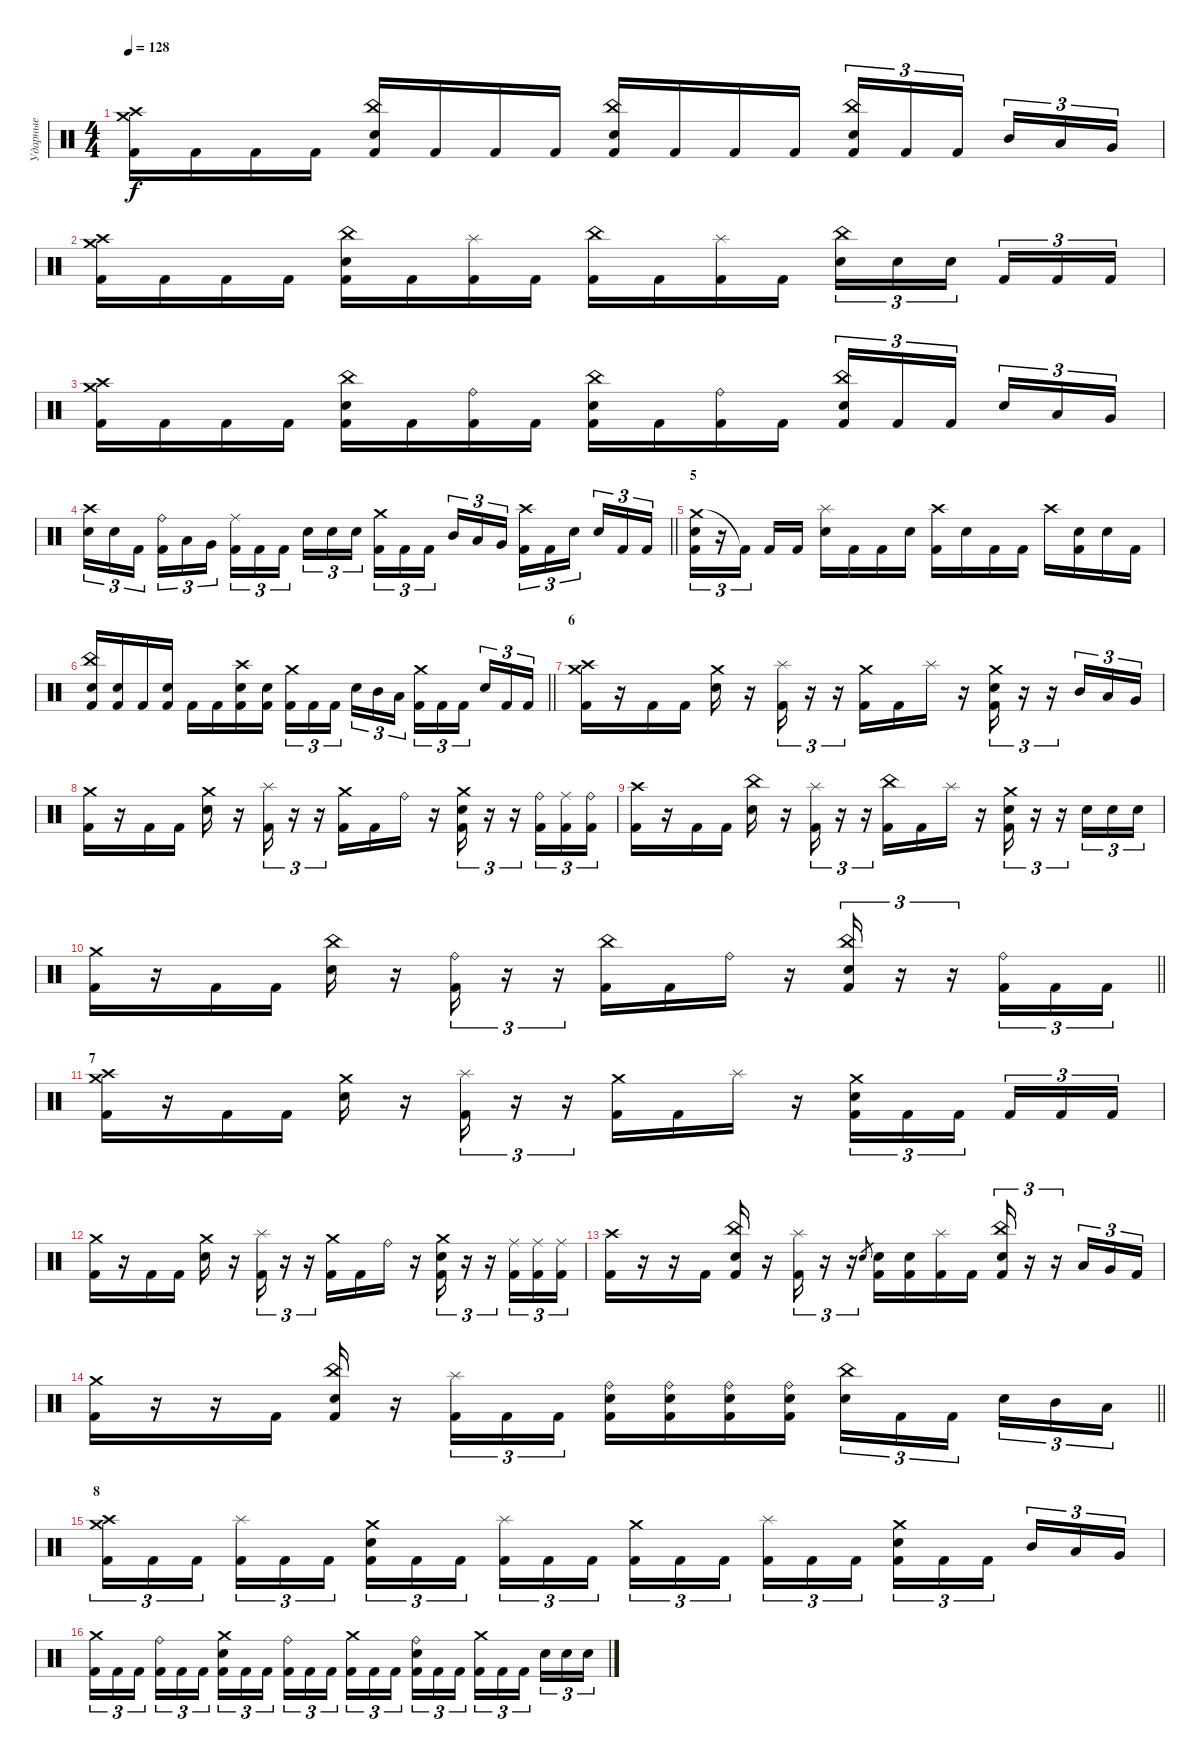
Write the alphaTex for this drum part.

\track ("Ударные" "Ударные") {instrument percussion}
\staff {score}
\articulation defaults
\ts (4 4)
\tempo 128
\clef neutral
\ks c
("Crash high (hit)" "Crash medium (hit)" "Kick (hit) 2").16{dy f} "Kick (hit) 2".16 "Kick (hit) 2".16 "Kick (hit) 2".16 ("China (hit)" "Electric Snare (hit)" "Kick (hit) 2").16 "Kick (hit) 2".16 "Kick (hit) 2".16 "Kick (hit) 2".16 ("China (hit)" "Electric Snare (hit)" "Kick (hit) 2").16 "Kick (hit) 2".16 "Kick (hit) 2".16 "Kick (hit) 2".16 ("China (hit)" "Electric Snare (hit)" "Kick (hit) 2").16{tu (3 2)} "Kick (hit) 2".16{tu (3 2)} "Kick (hit) 2".16{tu (3 2) beam splitsecondary} "Mid Tom (hit)".16{tu (3 2)} "Low Tom (hit)".16{tu (3 2)} "Very Low Tom (hit)".16{tu (3 2)} |
("Crash high (hit)" "Crash medium (hit)" "Kick (hit) 2").16 "Kick (hit) 2".16 "Kick (hit) 2".16 "Kick (hit) 2".16 ("China (hit)" "Electric Snare (hit)" "Kick (hit) 2").16 "Kick (hit) 2".16 ("Splash (hit)" "Kick (hit) 2").16 "Kick (hit) 2".16 ("China (hit)" "Kick (hit) 2").16 "Kick (hit) 2".16 ("Splash (hit)" "Kick (hit) 2").16 "Kick (hit) 2".16 ("China (hit)" "Electric Snare (hit)").16{tu (3 2)} "Electric Snare (hit)".16{tu (3 2)} "Electric Snare (hit)".16{tu (3 2) beam splitsecondary} "Kick (hit) 2".16{tu (3 2)} "Kick (hit) 2".16{tu (3 2)} "Kick (hit) 2".16{tu (3 2)} |
("Crash high (hit)" "Crash medium (hit)" "Kick (hit) 2").16 "Kick (hit) 2".16 "Kick (hit) 2".16 "Kick (hit) 2".16 ("China (hit)" "Electric Snare (hit)" "Kick (hit) 2").16 "Kick (hit) 2".16 ("Ride (bell)" "Kick (hit) 2").16 "Kick (hit) 2".16 ("China (hit)" "Electric Snare (hit)" "Kick (hit) 2").16 "Kick (hit) 2".16 ("Ride (bell)" "Kick (hit) 2").16 "Kick (hit) 2".16 ("China (hit)" "Electric Snare (hit)" "Kick (hit) 2").16{tu (3 2)} "Kick (hit) 2".16{tu (3 2)} "Kick (hit) 2".16{tu (3 2) beam splitsecondary} "Electric Snare (hit)".16{tu (3 2)} "Low Tom (hit)".16{tu (3 2)} "Very Low Tom (hit)".16{tu (3 2)} |
\barLineRight lightlight
("Crash high (hit)" "Electric Snare (hit)").16{tu (3 2)} "Electric Snare (hit)".16{tu (3 2)} "Kick (hit) 2".16{tu (3 2) beam splitsecondary} ("Ride (bell)" "Kick (hit) 2").16{tu (3 2)} "Low Tom (hit)".16{tu (3 2)} "Very Low Tom (hit)".16{tu (3 2)} ("Ride (middle)" "Kick (hit) 2").16{tu (3 2)} "Kick (hit) 2".16{tu (3 2)} "Kick (hit) 2".16{tu (3 2) beam splitsecondary} "Electric Snare (hit)".16{tu (3 2)} "Electric Snare (hit)".16{tu (3 2)} "Electric Snare (hit)".16{tu (3 2)} ("Crash medium (hit)" "Kick (hit) 2").16{tu (3 2)} "Kick (hit) 2".16{tu (3 2)} "Kick (hit) 2".16{tu (3 2) beam splitsecondary} "Mid Tom (hit)".16{tu (3 2)} "Low Tom (hit)".16{tu (3 2)} "Very Low Tom (hit)".16{tu (3 2)} ("Crash high (hit)" "Kick (hit) 2").16{tu (3 2)} "Kick (hit) 2".16{tu (3 2)} "Electric Snare (hit)".16{tu (3 2) beam splitsecondary} "Electric Snare (hit)".16{tu (3 2)} "Kick (hit) 2".16{tu (3 2)} "Kick (hit) 2".16{tu (3 2)} |
\section ("" "5")
("Crash medium (hit)" "Electric Snare (hit)" "Kick (hit) 2").16{tu (3 2)} r.16{tu (3 2)} "Kick (hit) 2"{t}.16{tu (3 2) beam splitsecondary} "Kick (hit) 2".16 "Kick (hit) 2".16 ("Splash (hit)" "Electric Snare (hit)").16 "Kick (hit) 2".16 "Kick (hit) 2".16 "Electric Snare (hit)".16 ("Crash high (hit)" "Kick (hit) 2").16 "Electric Snare (hit)".16 "Kick (hit) 2".16 "Kick (hit) 2".16 "Crash high (hit)".16 ("Electric Snare (hit)" "Kick (hit) 2").16 "Electric Snare (hit)".16 "Kick (hit) 2".16 |
\barLineRight lightlight
("China (hit)" "Electric Snare (hit)" "Kick (hit) 2").16 ("Electric Snare (hit)" "Kick (hit) 2").16 "Kick (hit) 2".16 ("Electric Snare (hit)" "Kick (hit) 2").16 "Kick (hit) 2".16 "Kick (hit) 2".16 ("Crash high (hit)" "Electric Snare (hit)" "Kick (hit) 2").16 ("Electric Snare (hit)" "Kick (hit) 2").16 ("Crash medium (hit)" "Kick (hit) 2").16{tu (3 2)} "Kick (hit) 2".16{tu (3 2)} "Kick (hit) 2".16{tu (3 2) beam splitsecondary} "Electric Snare (hit)".16{tu (3 2)} "Mid Tom (hit)".16{tu (3 2)} "Low Tom (hit)".16{tu (3 2)} ("Crash medium (hit)" "Kick (hit) 2").16{tu (3 2)} "Kick (hit) 2".16{tu (3 2)} "Kick (hit) 2".16{tu (3 2) beam splitsecondary} "Electric Snare (hit)".16{tu (3 2)} "Kick (hit) 2".16{tu (3 2)} "Kick (hit) 2".16{tu (3 2)} |
\section ("" "6")
("Crash high (hit)" "Crash medium (hit)" "Kick (hit) 2").16 r.16 "Kick (hit) 2".16 "Kick (hit) 2".16 ("Crash medium (hit)" "Electric Snare (hit)").16 r.16 ("Splash (hit)" "Kick (hit) 2").16{tu (3 2)} r.16{tu (3 2)} r.16{tu (3 2)} ("Crash medium (hit)" "Kick (hit) 2").16 "Kick (hit) 2".16 "Splash (hit)".16 r.16 ("Crash medium (hit)" "Electric Snare (hit)" "Kick (hit) 2").16{tu (3 2)} r.16{tu (3 2)} r.16{tu (3 2)} "Mid Tom (hit)".16{tu (3 2)} "Low Tom (hit)".16{tu (3 2)} "Very Low Tom (hit)".16{tu (3 2)} |
("Crash medium (hit)" "Kick (hit) 2").16 r.16 "Kick (hit) 2".16 "Kick (hit) 2".16 ("Crash medium (hit)" "Electric Snare (hit)").16 r.16 ("Splash (hit)" "Kick (hit) 2").16{tu (3 2)} r.16{tu (3 2)} r.16{tu (3 2)} ("Crash medium (hit)" "Kick (hit) 2").16 "Kick (hit) 2".16 "Ride (bell)".16 r.16 ("Crash medium (hit)" "Electric Snare (hit)" "Kick (hit) 2").16{tu (3 2)} r.16{tu (3 2)} r.16{tu (3 2)} ("Ride (bell)" "Kick (hit) 2").16{tu (3 2)} ("Ride (middle)" "Kick (hit) 2").16{tu (3 2)} ("Ride (bell)" "Kick (hit) 2").16{tu (3 2)} |
("Crash high (hit)" "Kick (hit) 2").16 r.16 "Kick (hit) 2".16 "Kick (hit) 2".16 ("China (hit)" "Electric Snare (hit)").16 r.16 ("Splash (hit)" "Kick (hit) 2").16{tu (3 2)} r.16{tu (3 2)} r.16{tu (3 2)} ("China (hit)" "Kick (hit) 2").16 "Kick (hit) 2".16 "Splash (hit)".16 r.16 ("Crash medium (hit)" "Electric Snare (hit)" "Kick (hit) 2").16{tu (3 2)} r.16{tu (3 2)} r.16{tu (3 2)} "Electric Snare (hit)".16{tu (3 2)} "Electric Snare (hit)".16{tu (3 2)} "Electric Snare (hit)".16{tu (3 2)} |
\barLineRight lightlight
("Crash medium (hit)" "Kick (hit) 2").16 r.16 "Kick (hit) 2".16 "Kick (hit) 2".16 ("China (hit)" "Electric Snare (hit)").16 r.16 ("Ride (bell)" "Kick (hit) 2").16{tu (3 2)} r.16{tu (3 2)} r.16{tu (3 2)} ("China (hit)" "Kick (hit) 2").16 "Kick (hit) 2".16 "Ride (bell)".16 r.16 ("China (hit)" "Electric Snare (hit)" "Kick (hit) 2").16{tu (3 2)} r.16{tu (3 2)} r.16{tu (3 2)} ("Ride (bell)" "Kick (hit) 2").16{tu (3 2)} "Kick (hit) 2".16{tu (3 2)} "Kick (hit) 2".16{tu (3 2)} |
\section ("" "7")
("Crash high (hit)" "Crash medium (hit)" "Kick (hit) 2").16 r.16 "Kick (hit) 2".16 "Kick (hit) 2".16 ("Crash medium (hit)" "Electric Snare (hit)").16 r.16 ("Splash (hit)" "Kick (hit) 2").16{tu (3 2)} r.16{tu (3 2)} r.16{tu (3 2)} ("Crash medium (hit)" "Kick (hit) 2").16 "Kick (hit) 2".16 "Splash (hit)".16 r.16 ("Crash medium (hit)" "Electric Snare (hit)" "Kick (hit) 2").16{tu (3 2)} "Kick (hit) 2".16{tu (3 2)} "Kick (hit) 2".16{tu (3 2) beam splitsecondary} "Kick (hit) 2".16{tu (3 2)} "Kick (hit) 2".16{tu (3 2)} "Kick (hit) 2".16{tu (3 2)} |
("Crash medium (hit)" "Kick (hit) 2").16 r.16 "Kick (hit) 2".16 "Kick (hit) 2".16 ("Crash medium (hit)" "Electric Snare (hit)").16 r.16 ("Splash (hit)" "Kick (hit) 2").16{tu (3 2)} r.16{tu (3 2)} r.16{tu (3 2)} ("Crash medium (hit)" "Kick (hit) 2").16 "Kick (hit) 2".16 "Ride (bell)".16 r.16 ("Crash medium (hit)" "Electric Snare (hit)" "Kick (hit) 2").16{tu (3 2)} r.16{tu (3 2)} r.16{tu (3 2)} ("Ride (middle)" "Kick (hit) 2").16{tu (3 2)} ("Ride (middle)" "Kick (hit) 2").16{tu (3 2)} ("Ride (middle)" "Kick (hit) 2").16{tu (3 2)} |
("Crash high (hit)" "Kick (hit) 2").16 r.16 r.16 "Kick (hit) 2".16 ("China (hit)" "Electric Snare (hit)" "Kick (hit) 2").16 r.16 ("Splash (hit)" "Kick (hit) 2").16{tu (3 2)} r.16{tu (3 2)} r.16{tu (3 2)} "Electric Snare (hit)".8{gr} ("Electric Snare (hit)" "Kick (hit) 2").16 ("Electric Snare (hit)" "Kick (hit) 2").16 ("Splash (hit)" "Kick (hit) 2").16 "Kick (hit) 2".16 ("China (hit)" "Electric Snare (hit)" "Kick (hit) 2").16{tu (3 2)} r.16{tu (3 2)} r.16{tu (3 2)} "Low Tom (hit)".16{tu (3 2)} "Very Low Tom (hit)".16{tu (3 2)} "Kick (hit) 2".16{tu (3 2)} |
\barLineRight lightlight
("Crash medium (hit)" "Kick (hit) 2").16 r.16 r.16 "Kick (hit) 2".16 ("China (hit)" "Electric Snare (hit)" "Kick (hit) 2").16 r.16 ("Splash (hit)" "Kick (hit) 2").16{tu (3 2)} "Kick (hit) 2".16{tu (3 2)} "Kick (hit) 2".16{tu (3 2)} ("Ride (bell)" "Electric Snare (hit)" "Kick (hit) 2").16 ("Ride (bell)" "Electric Snare (hit)" "Kick (hit) 2").16 ("Ride (bell)" "Electric Snare (hit)" "Kick (hit) 2").16 ("Ride (bell)" "Electric Snare (hit)" "Kick (hit) 2").16 ("China (hit)" "Electric Snare (hit)").16{tu (3 2)} "Kick (hit) 2".16{tu (3 2)} "Kick (hit) 2".16{tu (3 2) beam splitsecondary} "Electric Snare (hit)".16{tu (3 2)} "Mid Tom (hit)".16{tu (3 2)} "Low Tom (hit)".16{tu (3 2)} |
\section ("" " 8")
("Crash high (hit)" "Crash medium (hit)" "Kick (hit) 2").16{tu (3 2)} "Kick (hit) 2".16{tu (3 2)} "Kick (hit) 2".16{tu (3 2) beam splitsecondary} ("Splash (hit)" "Kick (hit) 2").16{tu (3 2)} "Kick (hit) 2".16{tu (3 2)} "Kick (hit) 2".16{tu (3 2)} ("Crash medium (hit)" "Electric Snare (hit)" "Kick (hit) 2").16{tu (3 2)} "Kick (hit) 2".16{tu (3 2)} "Kick (hit) 2".16{tu (3 2) beam splitsecondary} ("Splash (hit)" "Kick (hit) 2").16{tu (3 2)} "Kick (hit) 2".16{tu (3 2)} "Kick (hit) 2".16{tu (3 2)} ("Crash medium (hit)" "Kick (hit) 2").16{tu (3 2)} "Kick (hit) 2".16{tu (3 2)} "Kick (hit) 2".16{tu (3 2) beam splitsecondary} ("Splash (hit)" "Kick (hit) 2").16{tu (3 2)} "Kick (hit) 2".16{tu (3 2)} "Kick (hit) 2".16{tu (3 2)} ("Crash medium (hit)" "Electric Snare (hit)" "Kick (hit) 2").16{tu (3 2)} "Kick (hit) 2".16{tu (3 2)} "Kick (hit) 2".16{tu (3 2) beam splitsecondary} "Mid Tom (hit)".16{tu (3 2)} "Low Tom (hit)".16{tu (3 2)} "Very Low Tom (hit)".16{tu (3 2)} |
("Crash medium (hit)" "Kick (hit) 2").16{tu (3 2)} "Kick (hit) 2".16{tu (3 2)} "Kick (hit) 2".16{tu (3 2) beam splitsecondary} ("Ride (bell)" "Kick (hit) 2").16{tu (3 2)} "Kick (hit) 2".16{tu (3 2)} "Kick (hit) 2".16{tu (3 2)} ("Crash medium (hit)" "Electric Snare (hit)" "Kick (hit) 2").16{tu (3 2)} "Kick (hit) 2".16{tu (3 2)} "Kick (hit) 2".16{tu (3 2) beam splitsecondary} ("Ride (bell)" "Kick (hit) 2").16{tu (3 2)} "Kick (hit) 2".16{tu (3 2)} "Kick (hit) 2".16{tu (3 2)} ("Crash medium (hit)" "Kick (hit) 2").16{tu (3 2)} "Kick (hit) 2".16{tu (3 2)} "Kick (hit) 2".16{tu (3 2) beam splitsecondary} ("Ride (bell)" "Electric Snare (hit)" "Kick (hit) 2").16{tu (3 2)} "Kick (hit) 2".16{tu (3 2)} "Kick (hit) 2".16{tu (3 2)} ("Crash medium (hit)" "Kick (hit) 2").16{tu (3 2)} "Kick (hit) 2".16{tu (3 2)} "Kick (hit) 2".16{tu (3 2) beam splitsecondary} "Electric Snare (hit)".16{tu (3 2)} "Electric Snare (hit)".16{tu (3 2)} "Electric Snare (hit)".16{tu (3 2)}
